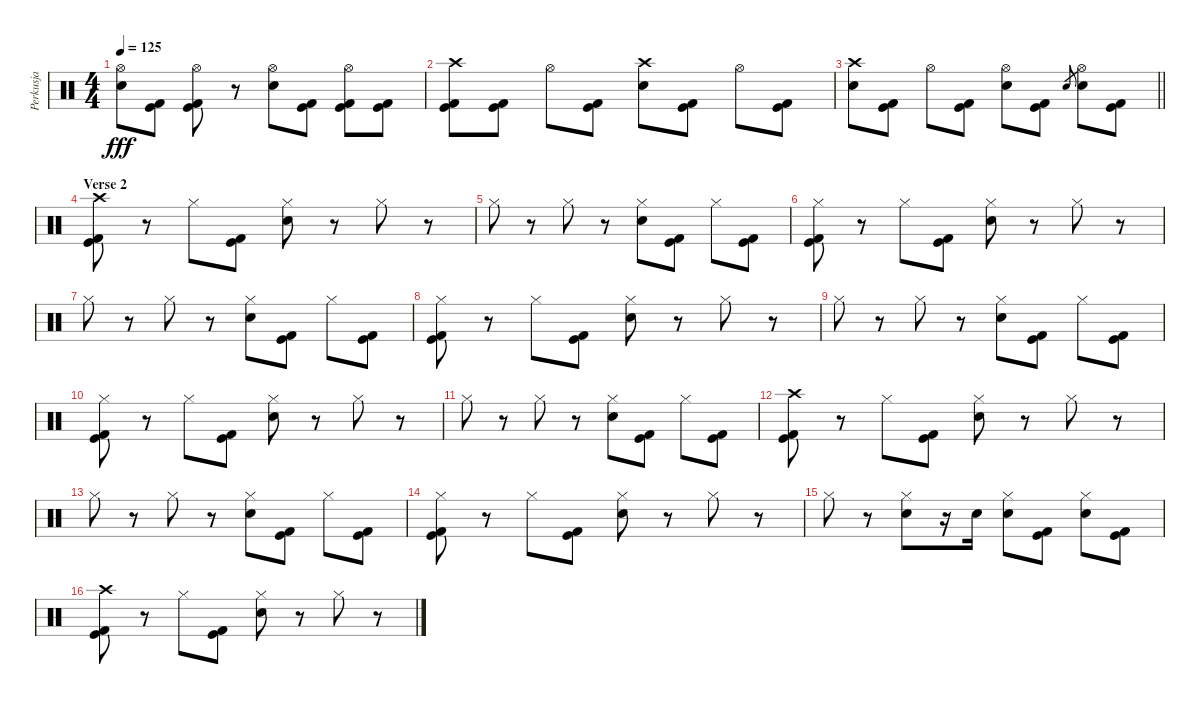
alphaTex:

\track ("Perkusja" "Perkusja") {instrument percussion}
\staff {score}
\articulation defaults
\ts (4 4)
\tempo 125
\clef neutral
\ks c
("Hi-Hat (open)" "Electric Snare (hit)").8{dy fff} ("Kick (hit)" "Kick (hit) 2").8 ("Hi-Hat (open)" "Kick (hit)" "Kick (hit) 2").8 r.8 ("Hi-Hat (open)" "Electric Snare (hit)").8 ("Kick (hit)" "Kick (hit) 2").8 ("Hi-Hat (open)" "Kick (hit)" "Kick (hit) 2").8 ("Kick (hit)" "Kick (hit) 2").8 |
("Crash high (hit)" "Kick (hit)" "Kick (hit) 2").8 ("Kick (hit)" "Kick (hit) 2").8 "Hi-Hat (open)".8 ("Kick (hit)" "Kick (hit) 2").8 ("Crash high (hit)" "Electric Snare (hit)").8 ("Kick (hit)" "Kick (hit) 2").8 "Hi-Hat (open)".8 ("Kick (hit)" "Kick (hit) 2").8 |
\barLineRight lightlight
("Crash high (hit)" "Electric Snare (hit)").8 ("Kick (hit)" "Kick (hit) 2").8 "Hi-Hat (open)".8 ("Kick (hit)" "Kick (hit) 2").8 ("Hi-Hat (open)" "Electric Snare (hit)").8 ("Kick (hit)" "Kick (hit) 2").8 "Electric Snare (hit)".8{gr} ("Hi-Hat (open)" "Electric Snare (hit)").8 ("Kick (hit)" "Kick (hit) 2").8 |
\section ("" "Verse 2")
("Crash high (hit)" "Kick (hit)" "Kick (hit) 2").8 r.8 "Hi-Hat (closed)".8 ("Kick (hit)" "Kick (hit) 2").8 ("Hi-Hat (closed)" "Electric Snare (hit)").8 r.8 "Hi-Hat (closed)".8 r.8 |
"Hi-Hat (closed)".8 r.8 "Hi-Hat (closed)".8 r.8 ("Hi-Hat (closed)" "Electric Snare (hit)").8 ("Kick (hit)" "Kick (hit) 2").8 "Hi-Hat (closed)".8 ("Kick (hit)" "Kick (hit) 2").8 |
("Hi-Hat (closed)" "Kick (hit)" "Kick (hit) 2").8 r.8 "Hi-Hat (closed)".8 ("Kick (hit)" "Kick (hit) 2").8 ("Hi-Hat (closed)" "Electric Snare (hit)").8 r.8 "Hi-Hat (closed)".8 r.8 |
"Hi-Hat (closed)".8 r.8 "Hi-Hat (closed)".8 r.8 ("Hi-Hat (closed)" "Electric Snare (hit)").8 ("Kick (hit)" "Kick (hit) 2").8 "Hi-Hat (closed)".8 ("Kick (hit)" "Kick (hit) 2").8 |
("Hi-Hat (closed)" "Kick (hit)" "Kick (hit) 2").8 r.8 "Hi-Hat (closed)".8 ("Kick (hit)" "Kick (hit) 2").8 ("Hi-Hat (closed)" "Electric Snare (hit)").8 r.8 "Hi-Hat (closed)".8 r.8 |
"Hi-Hat (closed)".8 r.8 "Hi-Hat (closed)".8 r.8 ("Hi-Hat (closed)" "Electric Snare (hit)").8 ("Kick (hit)" "Kick (hit) 2").8 "Hi-Hat (closed)".8 ("Kick (hit)" "Kick (hit) 2").8 |
("Hi-Hat (closed)" "Kick (hit)" "Kick (hit) 2").8 r.8 "Hi-Hat (closed)".8 ("Kick (hit)" "Kick (hit) 2").8 ("Hi-Hat (closed)" "Electric Snare (hit)").8 r.8 "Hi-Hat (closed)".8 r.8 |
"Hi-Hat (closed)".8 r.8 "Hi-Hat (closed)".8 r.8 ("Hi-Hat (closed)" "Electric Snare (hit)").8 ("Kick (hit)" "Kick (hit) 2").8 "Hi-Hat (closed)".8 ("Kick (hit)" "Kick (hit) 2").8 |
("Crash high (hit)" "Kick (hit)" "Kick (hit) 2").8 r.8 "Hi-Hat (closed)".8 ("Kick (hit)" "Kick (hit) 2").8 ("Hi-Hat (closed)" "Electric Snare (hit)").8 r.8 "Hi-Hat (closed)".8 r.8 |
"Hi-Hat (closed)".8 r.8 "Hi-Hat (closed)".8 r.8 ("Hi-Hat (closed)" "Electric Snare (hit)").8 ("Kick (hit)" "Kick (hit) 2").8 "Hi-Hat (closed)".8 ("Kick (hit)" "Kick (hit) 2").8 |
("Hi-Hat (closed)" "Kick (hit)" "Kick (hit) 2").8 r.8 "Hi-Hat (closed)".8 ("Kick (hit)" "Kick (hit) 2").8 ("Hi-Hat (closed)" "Electric Snare (hit)").8 r.8 "Hi-Hat (closed)".8 r.8 |
"Hi-Hat (closed)".8 r.8 ("Hi-Hat (closed)" "Electric Snare (hit)").8 r.16 "Electric Snare (hit)".16 ("Hi-Hat (closed)" "Electric Snare (hit)").8 ("Kick (hit)" "Kick (hit) 2").8 ("Hi-Hat (closed)" "Electric Snare (hit)").8 ("Kick (hit)" "Kick (hit) 2").8 |
("Crash high (hit)" "Kick (hit)" "Kick (hit) 2").8 r.8 "Hi-Hat (closed)".8 ("Kick (hit)" "Kick (hit) 2").8 ("Hi-Hat (closed)" "Electric Snare (hit)").8 r.8 "Hi-Hat (closed)".8 r.8
